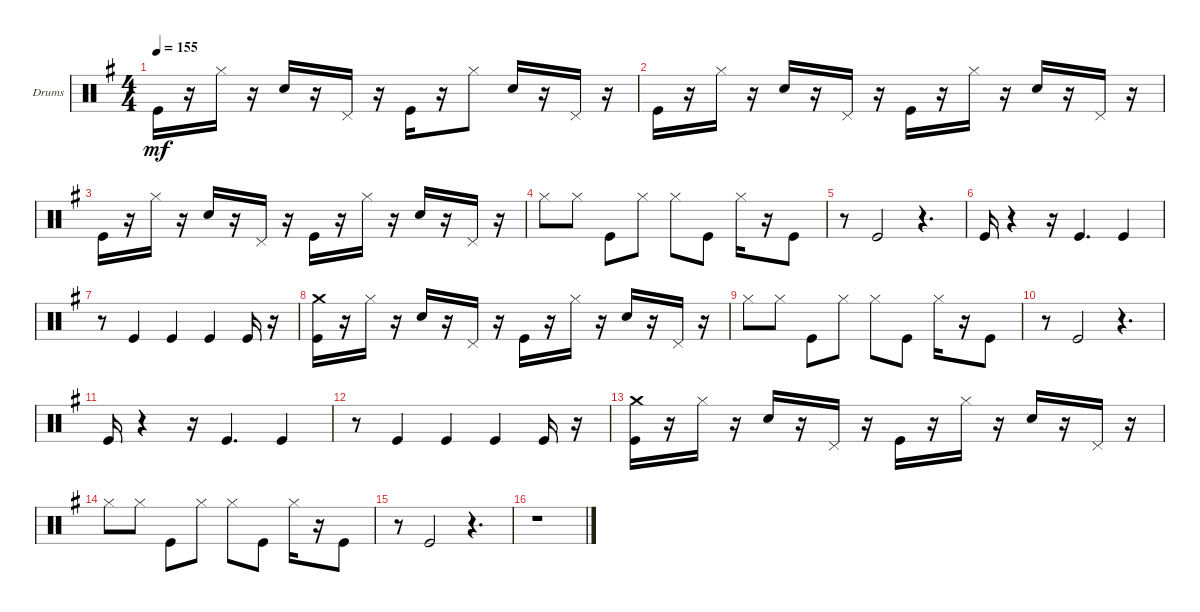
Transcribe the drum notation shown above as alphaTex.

\bracketExtendMode groupsimilarinstruments
\firstSystemTrackNameOrientation horizontal
\otherSystemsTrackNameOrientation horizontal
\track ("Drumkit" "Drums") {instrument percussion}
\staff {score}
\articulation defaults
\ts (4 4)
\tempo 155
\clef neutral
\scale
0.333333
\ks g "Kick (hit)".16{dy mf}
r.16 "Hi-Hat (closed)".16 r.16 "Snare (hit) 2".16 r.16 "Pedal Hi-Hat (hit)".16 r.16 "Kick (hit)".16 r.16 "Hi-Hat (closed)".8 "Snare (hit) 2".16 r.16 "Pedal Hi-Hat (hit)".16 r.16 |
\scale
0.333333 "Kick (hit)".16 r.16 "Hi-Hat (closed)".16 r.16 "Snare (hit) 2".16 r.16 "Pedal Hi-Hat (hit)".16 r.16 "Kick (hit)".16 r.16 "Hi-Hat (closed)".16 r.16 "Snare (hit) 2".16 r.16 "Pedal Hi-Hat (hit)".16 r.16 |
\scale
0.333333 "Kick (hit)".16 r.16 "Hi-Hat (closed)".16 r.16 "Snare (hit) 2".16 r.16 "Pedal Hi-Hat (hit)".16 r.16 "Kick (hit)".16 r.16 "Hi-Hat (closed)".16 r.16 "Snare (hit) 2".16 r.16 "Pedal Hi-Hat (hit)".16 r.16 |
\scale
0.333333 "Hi-Hat (closed)".8 "Hi-Hat (closed)".8 "Kick (hit)".8 "Hi-Hat (closed)".8 "Hi-Hat (closed)".8 "Kick (hit)".8 "Hi-Hat (closed)".16 r.16 "Kick (hit)".8 |
\scale
0.333333 r.8 "Kick (hit)".2 r.4{d} |
\scale
0.333333 "Kick (hit)".16 r.4 r.16 "Kick (hit)".4{d} "Kick (hit)".4 |
\scale
0.333333 r.8 "Kick (hit)".4 "Kick (hit)".4 "Kick (hit)".4 "Kick (hit)".16 r.16 |
\scale
0.333333 ("Crash medium (hit)" "Kick (hit)").16 r.16 "Hi-Hat (closed)".16 r.16 "Snare (hit) 2".16 r.16 "Pedal Hi-Hat (hit)".16 r.16 "Kick (hit)".16 r.16 "Hi-Hat (closed)".16 r.16 "Snare (hit) 2".16 r.16 "Pedal Hi-Hat (hit)".16 r.16 |
\scale
0.333333 "Hi-Hat (closed)".8 "Hi-Hat (closed)".8 "Kick (hit)".8 "Hi-Hat (closed)".8 "Hi-Hat (closed)".8 "Kick (hit)".8 "Hi-Hat (closed)".16 r.16 "Kick (hit)".8 |
\scale
0.333333 r.8 "Kick (hit)".2 r.4{d} |
\scale
0.333333 "Kick (hit)".16 r.4 r.16 "Kick (hit)".4{d} "Kick (hit)".4 |
\scale
0.333333 r.8 "Kick (hit)".4 "Kick (hit)".4 "Kick (hit)".4 "Kick (hit)".16 r.16 |
\scale
0.333333 ("Crash medium (hit)" "Kick (hit)").16 r.16 "Hi-Hat (closed)".16 r.16 "Snare (hit) 2".16 r.16 "Pedal Hi-Hat (hit)".16 r.16 "Kick (hit)".16 r.16 "Hi-Hat (closed)".16 r.16 "Snare (hit) 2".16 r.16 "Pedal Hi-Hat (hit)".16 r.16 |
\scale
0.333333 "Hi-Hat (closed)".8 "Hi-Hat (closed)".8 "Kick (hit)".8 "Hi-Hat (closed)".8 "Hi-Hat (closed)".8 "Kick (hit)".8 "Hi-Hat (closed)".16 r.16 "Kick (hit)".8 |
\scale
0.333333 r.8 "Kick (hit)".2 r.4{d} |
\scale
0.333333 r.1
